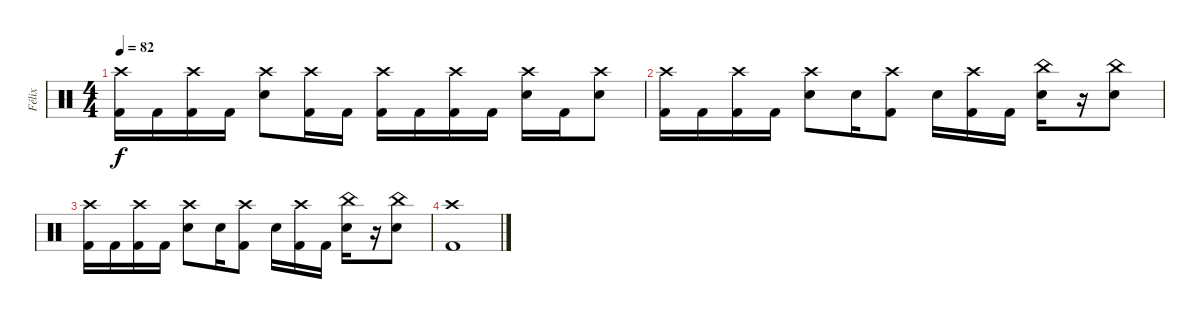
\track ("Félix" "Félix") {instrument percussion}
\staff {score}
\articulation defaults
\ts (4 4)
\tempo 82
\clef neutral
\ks c
("Crash high (hit)" "Kick (hit) 2").16{dy f} "Kick (hit) 2".16 ("Crash high (hit)" "Kick (hit) 2").16 "Kick (hit) 2".16 ("Crash high (hit)" "Snare (hit) 2").8 ("Crash high (hit)" "Kick (hit) 2").16 "Kick (hit) 2".16 ("Crash high (hit)" "Kick (hit) 2").16 "Kick (hit) 2".16 ("Crash high (hit)" "Kick (hit) 2").16 "Kick (hit) 2".16 ("Crash high (hit)" "Snare (hit) 2").16 "Kick (hit) 2".16 ("Crash high (hit)" "Snare (hit) 2").8 |
("Crash high (hit)" "Kick (hit) 2").16 "Kick (hit) 2".16 ("Crash high (hit)" "Kick (hit) 2").16 "Kick (hit) 2".16 ("Crash high (hit)" "Snare (hit) 2").8 "Snare (hit) 2".16 ("Crash high (hit)" "Kick (hit) 2").8 "Snare (hit) 2".16 ("Crash high (hit)" "Kick (hit) 2").16 "Kick (hit) 2".16 ("China (hit)" "Snare (hit) 2").16 r.16 ("China (hit)" "Snare (hit) 2").8 |
("Crash high (hit)" "Kick (hit) 2").16 "Kick (hit) 2".16 ("Crash high (hit)" "Kick (hit) 2").16 "Kick (hit) 2".16 ("Crash high (hit)" "Snare (hit) 2").8 "Snare (hit) 2".16 ("Crash high (hit)" "Kick (hit) 2").8 "Snare (hit) 2".16 ("Crash high (hit)" "Kick (hit) 2").16 "Kick (hit) 2".16 ("China (hit)" "Snare (hit) 2").16 r.16 ("China (hit)" "Snare (hit) 2").8 |
("Crash high (hit)" "Kick (hit) 2").1
